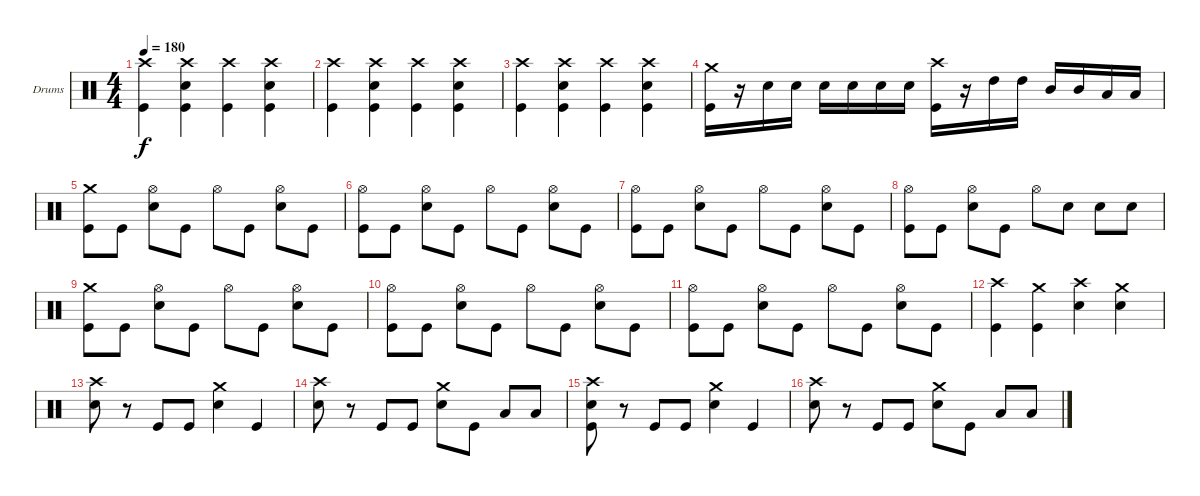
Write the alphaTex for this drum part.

\bracketExtendMode groupsimilarinstruments
\firstSystemTrackNameOrientation horizontal
\otherSystemsTrackNameOrientation horizontal
\track ("Drumkit" "Drums") {instrument percussion}
\staff {score}
\articulation defaults
\ts (4 4)
\tempo 180
\clef neutral
\ks c
("Crash high (hit)" "Kick (hit)").4{dy f} ("Crash high (hit)" "Snare (hit) 2" "Kick (hit)").4 ("Crash high (hit)" "Kick (hit)").4 ("Crash high (hit)" "Snare (hit) 2" "Kick (hit)").4 |
("Crash high (hit)" "Kick (hit)").4 ("Crash high (hit)" "Snare (hit) 2" "Kick (hit)").4 ("Crash high (hit)" "Kick (hit)").4 ("Crash high (hit)" "Snare (hit) 2" "Kick (hit)").4 |
("Crash high (hit)" "Kick (hit)").4 ("Crash high (hit)" "Snare (hit) 2" "Kick (hit)").4 ("Crash high (hit)" "Kick (hit)").4 ("Crash high (hit)" "Snare (hit) 2" "Kick (hit)").4 |
("Kick (hit)" "Crash medium (hit)").16 r.16 "Snare (hit) 2".16 "Snare (hit) 2".16 "Snare (hit) 2".16 "Snare (hit) 2".16 "Snare (hit) 2".16 "Snare (hit) 2".16 ("Kick (hit)" "Crash high (hit)").16 r.16 "High Tom (hit)".16 "High Tom (hit)".16 "Mid Tom (hit)".16 "Mid Tom (hit)".16 "Low Tom (hit)".16 "Low Tom (hit)".16 |
("Crash medium (hit)" "Kick (hit)").8 "Kick (hit)".8 ("Hi-Hat (open)" "Snare (hit) 2").8 "Kick (hit)".8 "Hi-Hat (open)".8 "Kick (hit)".8 ("Hi-Hat (open)" "Snare (hit) 2").8 "Kick (hit)".8 |
("Hi-Hat (open)" "Kick (hit)").8 "Kick (hit)".8 ("Hi-Hat (open)" "Snare (hit) 2").8 "Kick (hit)".8 "Hi-Hat (open)".8 "Kick (hit)".8 ("Hi-Hat (open)" "Snare (hit) 2").8 "Kick (hit)".8 |
("Hi-Hat (open)" "Kick (hit)").8 "Kick (hit)".8 ("Hi-Hat (open)" "Snare (hit) 2").8 "Kick (hit)".8 "Hi-Hat (open)".8 "Kick (hit)".8 ("Hi-Hat (open)" "Snare (hit) 2").8 "Kick (hit)".8 |
("Hi-Hat (open)" "Kick (hit)").8 "Kick (hit)".8 ("Hi-Hat (open)" "Snare (hit) 2").8 "Kick (hit)".8 "Hi-Hat (open)".8 "Snare (hit) 2".8 "Snare (hit) 2".8 "Snare (hit) 2".8 |
("Crash medium (hit)" "Kick (hit)").8 "Kick (hit)".8 ("Hi-Hat (open)" "Snare (hit) 2").8 "Kick (hit)".8 "Hi-Hat (open)".8 "Kick (hit)".8 ("Hi-Hat (open)" "Snare (hit) 2").8 "Kick (hit)".8 |
("Hi-Hat (open)" "Kick (hit)").8 "Kick (hit)".8 ("Hi-Hat (open)" "Snare (hit) 2").8 "Kick (hit)".8 "Hi-Hat (open)".8 "Kick (hit)".8 ("Hi-Hat (open)" "Snare (hit) 2").8 "Kick (hit)".8 |
("Hi-Hat (open)" "Kick (hit)").8 "Kick (hit)".8 ("Hi-Hat (open)" "Snare (hit) 2").8 "Kick (hit)".8 "Hi-Hat (open)".8 "Kick (hit)".8 ("Hi-Hat (open)" "Snare (hit) 2").8 "Kick (hit)".8 |
("Kick (hit)" "Crash high (hit)").4 ("Crash medium (hit)" "Kick (hit)").4 ("Crash high (hit)" "Snare (hit) 2").4 ("Crash medium (hit)" "Snare (hit) 2").4 |
("Crash high (hit)" "Snare (hit) 2").8 r.8 "Kick (hit)".8 "Kick (hit)".8 ("Crash medium (hit)" "Snare (hit) 2").4 "Kick (hit)".4 |
("Crash high (hit)" "Snare (hit) 2").8 r.8 "Kick (hit)".8 "Kick (hit)".8 ("Crash medium (hit)" "Snare (hit) 2").8 "Kick (hit)".8 "Low Tom (hit)".8 "Low Tom (hit)".8 |
("Crash high (hit)" "Snare (hit) 2" "Kick (hit)").8 r.8 "Kick (hit)".8 "Kick (hit)".8 ("Crash medium (hit)" "Snare (hit) 2").4 "Kick (hit)".4 |
("Crash high (hit)" "Snare (hit) 2").8 r.8 "Kick (hit)".8 "Kick (hit)".8 ("Crash medium (hit)" "Snare (hit) 2").8 "Kick (hit)".8 "Low Tom (hit)".8 "Low Tom (hit)".8
